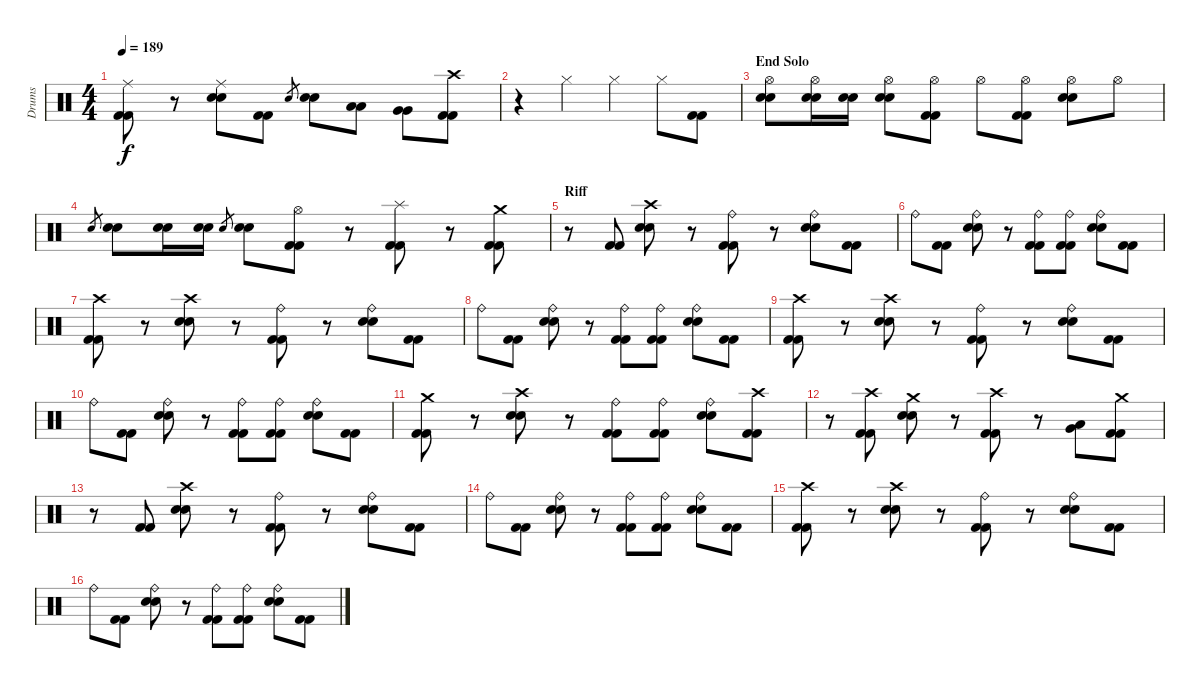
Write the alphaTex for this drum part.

\track ("Drums" "Drums") {instrument percussion}
\staff {score}
\articulation defaults
\ts (4 4)
\tempo 189
\clef neutral
\ks c
("Ride (middle)" "Kick (hit) 2" "Kick (hit) 2").8{dy f} r.8 ("Ride (middle)" "Snare (hit) 2" "Snare (hit) 2").8 ("Kick (hit) 2" "Kick (hit) 2").8 "Snare (hit) 2".8{gr} ("Snare (hit) 2" "Snare (hit) 2").8 ("Low Tom (hit)" "Low Tom (hit)").8 ("Very Low Tom (hit)" "Very Low Tom (hit)").8 ("Crash high (hit)" "Kick (hit) 2" "Kick (hit) 2").8 |
r.4 "Hi-Hat (closed)".4 "Hi-Hat (closed)".4 "Hi-Hat (closed)".8 ("Kick (hit) 2" "Kick (hit) 2").8 |
\section ("" "End Solo")
("Hi-Hat (open)" "Snare (hit) 2" "Snare (hit) 2").8 ("Hi-Hat (open)" "Snare (hit) 2" "Snare (hit) 2").16 ("Snare (hit) 2" "Snare (hit) 2").16 ("Hi-Hat (open)" "Snare (hit) 2" "Snare (hit) 2").8 ("Hi-Hat (open)" "Kick (hit) 2" "Kick (hit) 2").8 "Hi-Hat (open)".8 ("Hi-Hat (open)" "Kick (hit) 2" "Kick (hit) 2").8 ("Hi-Hat (open)" "Snare (hit) 2" "Snare (hit) 2").8 "Hi-Hat (open)".8 |
"Snare (hit) 2".8{gr} ("Snare (hit) 2" "Snare (hit) 2").8 ("Snare (hit) 2" "Snare (hit) 2").16 ("Snare (hit) 2" "Snare (hit) 2").16 "Snare (hit) 2".8{gr} ("Snare (hit) 2" "Snare (hit) 2").8 ("Hi-Hat (open)" "Kick (hit) 2" "Kick (hit) 2").8 r.8 ("Splash (hit)" "Kick (hit) 2" "Kick (hit) 2").8 r.8 ("Crash medium (hit)" "Kick (hit) 2" "Kick (hit) 2").8 |
\section ("" "Riff")
r.8 ("Kick (hit) 2" "Kick (hit) 2").8 ("Crash high (hit)" "Snare (hit) 2" "Snare (hit) 2").8 r.8 ("Ride (bell)" "Kick (hit) 2" "Kick (hit) 2").8 r.8 ("Ride (bell)" "Snare (hit) 2" "Snare (hit) 2").8 ("Kick (hit) 2" "Kick (hit) 2").8 |
"Ride (bell)".8 ("Kick (hit) 2" "Kick (hit) 2").8 ("Ride (bell)" "Snare (hit) 2" "Snare (hit) 2").8 r.8 ("Ride (bell)" "Kick (hit) 2" "Kick (hit) 2").8 ("Ride (bell)" "Kick (hit) 2" "Kick (hit) 2").8 ("Ride (bell)" "Snare (hit) 2" "Snare (hit) 2").8 ("Kick (hit) 2" "Kick (hit) 2").8 |
("Crash high (hit)" "Kick (hit) 2" "Kick (hit) 2").8 r.8 ("Crash high (hit)" "Snare (hit) 2" "Snare (hit) 2").8 r.8 ("Ride (bell)" "Kick (hit) 2" "Kick (hit) 2").8 r.8 ("Ride (bell)" "Snare (hit) 2" "Snare (hit) 2").8 ("Kick (hit) 2" "Kick (hit) 2").8 |
"Ride (bell)".8 ("Kick (hit) 2" "Kick (hit) 2").8 ("Ride (bell)" "Snare (hit) 2" "Snare (hit) 2").8 r.8 ("Ride (bell)" "Kick (hit) 2" "Kick (hit) 2").8 ("Ride (bell)" "Kick (hit) 2" "Kick (hit) 2").8 ("Ride (bell)" "Snare (hit) 2" "Snare (hit) 2").8 ("Kick (hit) 2" "Kick (hit) 2").8 |
("Crash high (hit)" "Kick (hit) 2" "Kick (hit) 2").8 r.8 ("Crash high (hit)" "Snare (hit) 2" "Snare (hit) 2").8 r.8 ("Ride (bell)" "Kick (hit) 2" "Kick (hit) 2").8 r.8 ("Ride (bell)" "Snare (hit) 2" "Snare (hit) 2").8 ("Kick (hit) 2" "Kick (hit) 2").8 |
"Ride (bell)".8 ("Kick (hit) 2" "Kick (hit) 2").8 ("Ride (bell)" "Snare (hit) 2" "Snare (hit) 2").8 r.8 ("Ride (bell)" "Kick (hit) 2" "Kick (hit) 2").8 ("Ride (bell)" "Kick (hit) 2" "Kick (hit) 2").8 ("Ride (bell)" "Snare (hit) 2" "Snare (hit) 2").8 ("Kick (hit) 2" "Kick (hit) 2").8 |
("Crash medium (hit)" "Kick (hit) 2" "Kick (hit) 2").8 r.8 ("Crash high (hit)" "Snare (hit) 2" "Snare (hit) 2").8 r.8 ("Ride (bell)" "Kick (hit) 2" "Kick (hit) 2").8 ("Ride (bell)" "Kick (hit) 2" "Kick (hit) 2").8 ("Ride (bell)" "Snare (hit) 2" "Snare (hit) 2").8 ("Crash high (hit)" "Kick (hit) 2" "Kick (hit) 2").8 |
r.8 ("Crash high (hit)" "Kick (hit) 2" "Kick (hit) 2").8 ("Crash medium (hit)" "Snare (hit) 2" "Snare (hit) 2").8 r.8 ("Crash high (hit)" "Kick (hit) 2" "Kick (hit) 2").8 r.8 ("Very Low Tom (hit)" "Low Tom (hit)").8 ("Crash medium (hit)" "Kick (hit) 2" "Kick (hit) 2").8 |
r.8 ("Kick (hit) 2" "Kick (hit) 2").8 ("Crash high (hit)" "Snare (hit) 2" "Snare (hit) 2").8 r.8 ("Ride (bell)" "Kick (hit) 2" "Kick (hit) 2").8 r.8 ("Ride (bell)" "Snare (hit) 2" "Snare (hit) 2").8 ("Kick (hit) 2" "Kick (hit) 2").8 |
"Ride (bell)".8 ("Kick (hit) 2" "Kick (hit) 2").8 ("Ride (bell)" "Snare (hit) 2" "Snare (hit) 2").8 r.8 ("Ride (bell)" "Kick (hit) 2" "Kick (hit) 2").8 ("Ride (bell)" "Kick (hit) 2" "Kick (hit) 2").8 ("Ride (bell)" "Snare (hit) 2" "Snare (hit) 2").8 ("Kick (hit) 2" "Kick (hit) 2").8 |
("Crash high (hit)" "Kick (hit) 2" "Kick (hit) 2").8 r.8 ("Crash high (hit)" "Snare (hit) 2" "Snare (hit) 2").8 r.8 ("Ride (bell)" "Kick (hit) 2" "Kick (hit) 2").8 r.8 ("Ride (bell)" "Snare (hit) 2" "Snare (hit) 2").8 ("Kick (hit) 2" "Kick (hit) 2").8 |
"Ride (bell)".8 ("Kick (hit) 2" "Kick (hit) 2").8 ("Ride (bell)" "Snare (hit) 2" "Snare (hit) 2").8 r.8 ("Ride (bell)" "Kick (hit) 2" "Kick (hit) 2").8 ("Ride (bell)" "Kick (hit) 2" "Kick (hit) 2").8 ("Ride (bell)" "Snare (hit) 2" "Snare (hit) 2").8 ("Kick (hit) 2" "Kick (hit) 2").8
